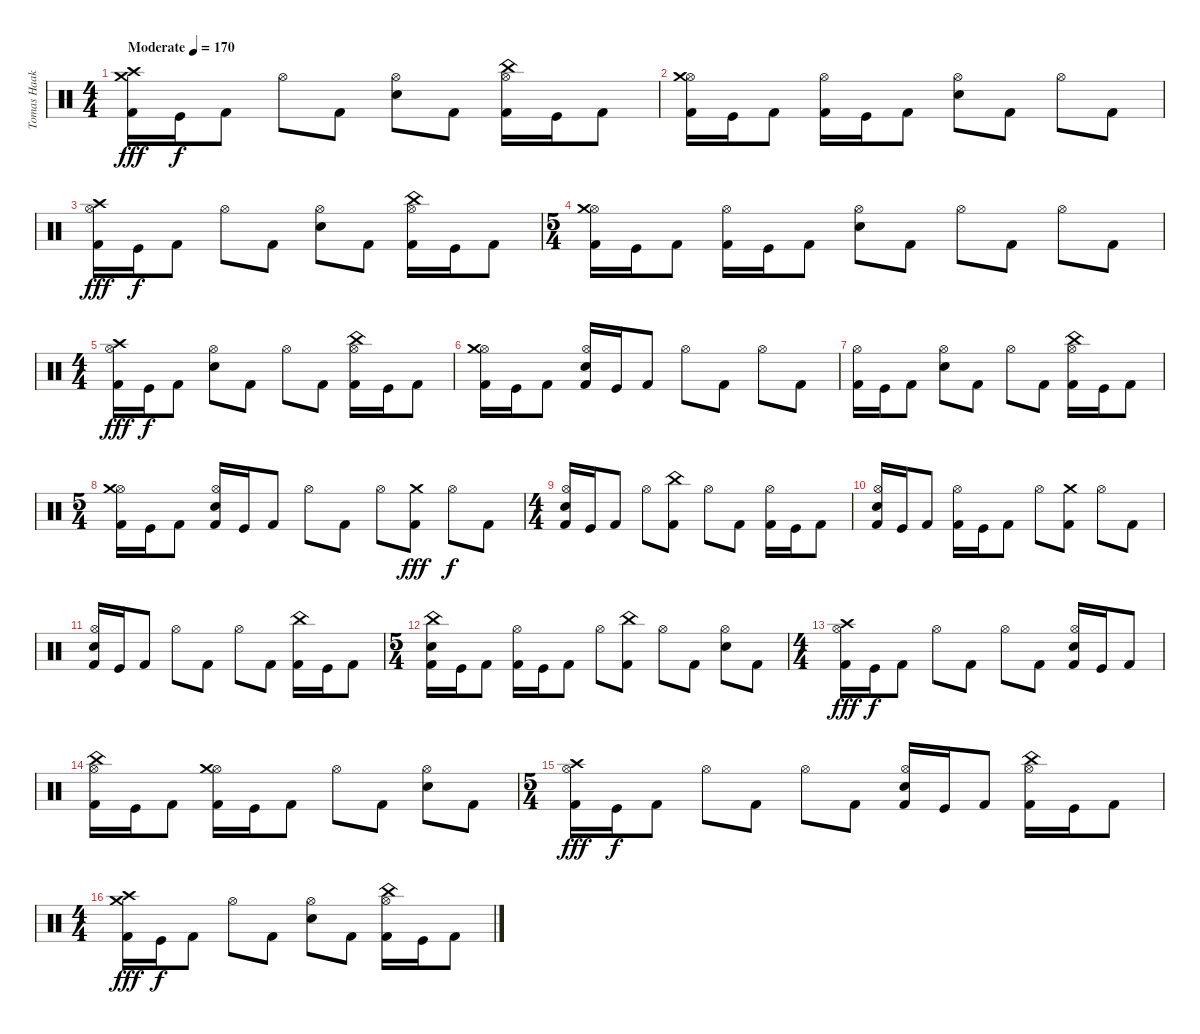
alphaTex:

\track ("Tomas Haake" "Tomas Haak") {instrument percussion}
\staff {score}
\articulation defaults
\ts (4 4)
\tempo (170 "Moderate")
\clef neutral
\ks c
("Kick (hit) 2" "Crash high (hit)" "Crash medium (hit)").16{dy fff} "Kick (hit)".16{dy f} "Kick (hit) 2".8 "Hi-Hat (open)".8 "Kick (hit) 2".8 ("Snare (hit) 2" "Hi-Hat (open)").8 "Kick (hit) 2".8 ("Kick (hit) 2" "Hi-Hat (open)" "China (hit)").16 "Kick (hit)".16 "Kick (hit) 2".8 |
("Kick (hit) 2" "Hi-Hat (open)" "Crash medium (hit)").16 "Kick (hit)".16 "Kick (hit) 2".8 ("Kick (hit) 2" "Hi-Hat (open)").16 "Kick (hit)".16 "Kick (hit) 2".8 ("Snare (hit) 2" "Hi-Hat (open)").8 "Kick (hit) 2".8 "Hi-Hat (open)".8 "Kick (hit) 2".8 |
("Kick (hit) 2" "Hi-Hat (open)" "Crash high (hit)").16{dy fff} "Kick (hit)".16{dy f} "Kick (hit) 2".8 "Hi-Hat (open)".8 "Kick (hit) 2".8 ("Snare (hit) 2" "Hi-Hat (open)").8 "Kick (hit) 2".8 ("Kick (hit) 2" "Hi-Hat (open)" "China (hit)").16 "Kick (hit)".16 "Kick (hit) 2".8 |
\ts (5 4)
("Kick (hit) 2" "Hi-Hat (open)" "Crash medium (hit)").16 "Kick (hit)".16 "Kick (hit) 2".8 ("Kick (hit) 2" "Hi-Hat (open)").16 "Kick (hit)".16 "Kick (hit) 2".8 ("Snare (hit) 2" "Hi-Hat (open)").8 "Kick (hit) 2".8 "Hi-Hat (open)".8 "Kick (hit) 2".8 "Hi-Hat (open)".8 "Kick (hit) 2".8 |
\ts (4 4)
("Kick (hit) 2" "Hi-Hat (open)" "Crash high (hit)").16{dy fff} "Kick (hit)".16{dy f} "Kick (hit) 2".8 ("Snare (hit) 2" "Hi-Hat (open)").8 "Kick (hit) 2".8 "Hi-Hat (open)".8 "Kick (hit) 2".8 ("Kick (hit) 2" "Hi-Hat (open)" "China (hit)").16 "Kick (hit)".16 "Kick (hit) 2".8 |
("Kick (hit) 2" "Hi-Hat (open)" "Crash medium (hit)").16 "Kick (hit)".16 "Kick (hit) 2".8 ("Kick (hit) 2" "Snare (hit) 2" "Hi-Hat (open)").16 "Kick (hit)".16 "Kick (hit) 2".8 "Hi-Hat (open)".8 "Kick (hit) 2".8 "Hi-Hat (open)".8 "Kick (hit) 2".8 |
("Kick (hit) 2" "Hi-Hat (open)").16 "Kick (hit)".16 "Kick (hit) 2".8 ("Snare (hit) 2" "Hi-Hat (open)").8 "Kick (hit) 2".8 "Hi-Hat (open)".8 "Kick (hit) 2".8 ("Kick (hit) 2" "Hi-Hat (open)" "China (hit)").16 "Kick (hit)".16 "Kick (hit) 2".8 |
\ts (5 4)
("Kick (hit) 2" "Hi-Hat (open)" "Crash medium (hit)").16 "Kick (hit)".16 "Kick (hit) 2".8 ("Kick (hit) 2" "Snare (hit) 2" "Hi-Hat (open)").16 "Kick (hit)".16 "Kick (hit) 2".8 "Hi-Hat (open)".8 "Kick (hit) 2".8 "Hi-Hat (open)".8 ("Kick (hit) 2" "Crash medium (hit)").8{dy fff} "Hi-Hat (open)".8{dy f} "Kick (hit) 2".8 |
\ts (4 4)
("Kick (hit) 2" "Snare (hit) 2" "Hi-Hat (open)").16 "Kick (hit)".16 "Kick (hit) 2".8 "Hi-Hat (open)".8 ("Kick (hit) 2" "China (hit)").8 "Hi-Hat (open)".8 "Kick (hit) 2".8 ("Kick (hit) 2" "Hi-Hat (open)").16 "Kick (hit)".16 "Kick (hit) 2".8 |
("Kick (hit) 2" "Snare (hit) 2" "Hi-Hat (open)").16 "Kick (hit)".16 "Kick (hit) 2".8 ("Kick (hit) 2" "Hi-Hat (open)").16 "Kick (hit)".16 "Kick (hit) 2".8 "Hi-Hat (open)".8 ("Kick (hit) 2" "Crash medium (hit)").8 "Hi-Hat (open)".8 "Kick (hit) 2".8 |
("Kick (hit) 2" "Snare (hit) 2" "Hi-Hat (open)").16 "Kick (hit)".16 "Kick (hit) 2".8 "Hi-Hat (open)".8 "Kick (hit) 2".8 "Hi-Hat (open)".8 "Kick (hit) 2".8 ("Kick (hit) 2" "China (hit)").16 "Kick (hit)".16 "Kick (hit) 2".8 |
\ts (5 4)
("Kick (hit) 2" "Snare (hit) 2" "China (hit)").16 "Kick (hit)".16 "Kick (hit) 2".8 ("Kick (hit) 2" "Hi-Hat (open)").16 "Kick (hit)".16 "Kick (hit) 2".8 "Hi-Hat (open)".8 ("Kick (hit) 2" "China (hit)").8 "Hi-Hat (open)".8 "Kick (hit) 2".8 ("Snare (hit) 2" "Hi-Hat (open)").8 "Kick (hit) 2".8 |
\ts (4 4)
("Kick (hit) 2" "Hi-Hat (open)" "Crash high (hit)").16{dy fff} "Kick (hit)".16{dy f} "Kick (hit) 2".8 "Hi-Hat (open)".8 "Kick (hit) 2".8 "Hi-Hat (open)".8 "Kick (hit) 2".8 ("Kick (hit) 2" "Snare (hit) 2" "Hi-Hat (open)").16 "Kick (hit)".16 "Kick (hit) 2".8 |
("Kick (hit) 2" "Hi-Hat (open)" "China (hit)").16 "Kick (hit)".16 "Kick (hit) 2".8 ("Kick (hit) 2" "Hi-Hat (open)" "Crash medium (hit)").16 "Kick (hit)".16 "Kick (hit) 2".8 "Hi-Hat (open)".8 "Kick (hit) 2".8 ("Snare (hit) 2" "Hi-Hat (open)").8 "Kick (hit) 2".8 |
\ts (5 4)
("Kick (hit) 2" "Hi-Hat (open)" "Crash high (hit)").16{dy fff} "Kick (hit)".16{dy f} "Kick (hit) 2".8 "Hi-Hat (open)".8 "Kick (hit) 2".8 "Hi-Hat (open)".8 "Kick (hit) 2".8 ("Kick (hit) 2" "Snare (hit) 2" "Hi-Hat (open)").16 "Kick (hit)".16 "Kick (hit) 2".8 ("Kick (hit) 2" "Hi-Hat (open)" "China (hit)").16 "Kick (hit)".16 "Kick (hit) 2".8 |
\ts (4 4)
("Kick (hit) 2" "Crash high (hit)" "Crash medium (hit)").16{dy fff} "Kick (hit)".16{dy f} "Kick (hit) 2".8 "Hi-Hat (open)".8 "Kick (hit) 2".8 ("Snare (hit) 2" "Hi-Hat (open)").8 "Kick (hit) 2".8 ("Kick (hit) 2" "Hi-Hat (open)" "China (hit)").16 "Kick (hit)".16 "Kick (hit) 2".8
